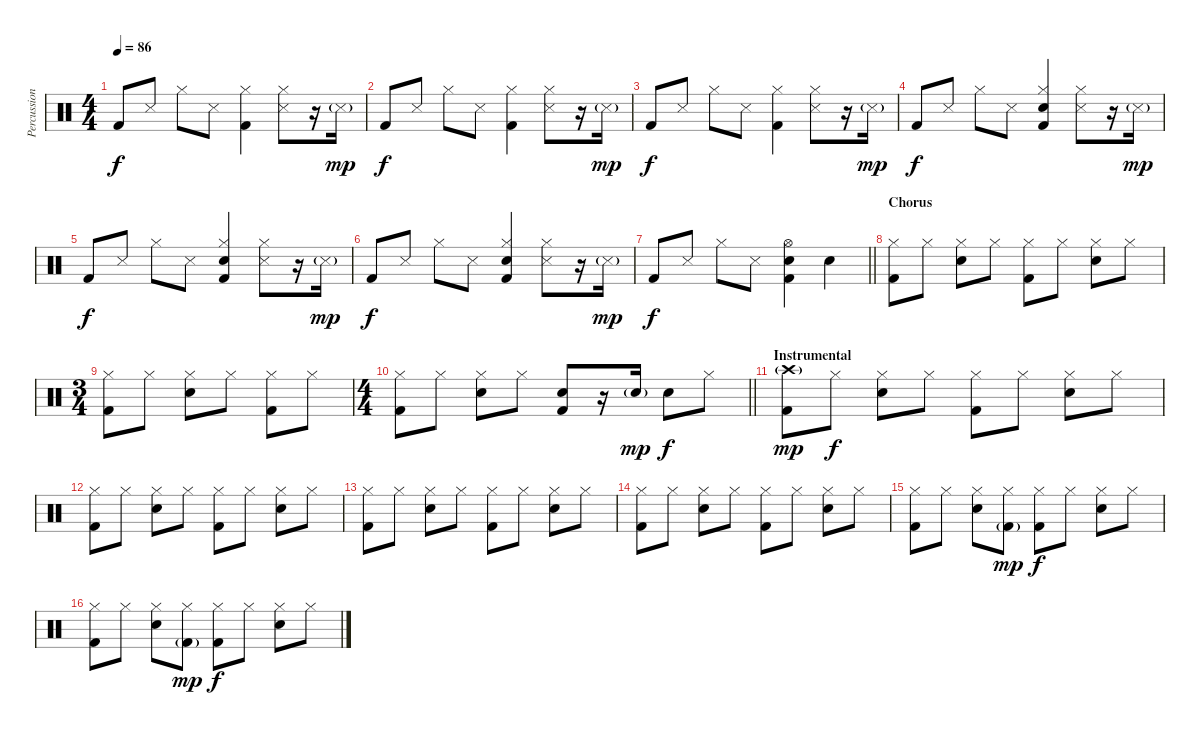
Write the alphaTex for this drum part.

\track ("Percussion" "Percussion") {instrument percussion}
\staff {score}
\articulation defaults
\ts (4 4)
\tempo 86
\clef neutral
\ks c "Kick (hit) 2".8{dy f} "Snare (side stick) 3".8 "Hi-Hat (closed)".8 "Snare (side stick) 3".8
("Hi-Hat (closed)" "Kick (hit) 2").4 ("Hi-Hat (closed)" "Snare (side stick) 3").8 r.16 "Snare (side stick) 3"{g}.16{dy mp} |
"Kick (hit) 2".8{dy f} "Snare (side stick) 3".8 "Hi-Hat (closed)".8 "Snare (side stick) 3".8 ("Hi-Hat (closed)" "Kick (hit) 2").4 ("Hi-Hat (closed)" "Snare (side stick) 3").8 r.16 "Snare (side stick) 3"{g}.16{dy mp} |
"Kick (hit) 2".8{dy f} "Snare (side stick) 3".8 "Hi-Hat (closed)".8 "Snare (side stick) 3".8 ("Hi-Hat (closed)" "Kick (hit) 2").4 ("Hi-Hat (closed)" "Snare (side stick) 3").8 r.16 "Snare (side stick) 3"{g}.16{dy mp} |
"Kick (hit) 2".8{dy f} "Snare (side stick) 3".8 "Hi-Hat (closed)".8 "Snare (side stick) 3".8 ("Hi-Hat (closed)" "Snare (hit) 2" "Kick (hit) 2").4 ("Hi-Hat (closed)" "Snare (side stick) 3").8 r.16 "Snare (side stick) 3"{g}.16{dy mp} |
"Kick (hit) 2".8{dy f} "Snare (side stick) 3".8 "Hi-Hat (closed)".8 "Snare (side stick) 3".8 ("Hi-Hat (closed)" "Snare (hit) 2" "Kick (hit) 2").4 ("Hi-Hat (closed)" "Snare (side stick) 3").8 r.16 "Snare (side stick) 3"{g}.16{dy mp} |
"Kick (hit) 2".8{dy f} "Snare (side stick) 3".8 "Hi-Hat (closed)".8 "Snare (side stick) 3".8 ("Hi-Hat (closed)" "Snare (hit) 2" "Kick (hit) 2").4 ("Hi-Hat (closed)" "Snare (side stick) 3").8 r.16 "Snare (side stick) 3"{g}.16{dy mp} |
\barLineRight lightlight "Kick (hit) 2".8{dy f} "Snare (side stick) 3".8 "Hi-Hat (closed)".8 "Snare (side stick) 3".8
("Hi-Hat (open)" "Snare (hit) 2" "Kick (hit) 2").4 "Snare (hit) 2".4 |
\section ("" "Chorus")
("Hi-Hat (closed)" "Kick (hit) 2").8 "Hi-Hat (closed)".8 ("Hi-Hat (closed)" "Snare (hit) 2").8 "Hi-Hat (closed)".8 ("Hi-Hat (closed)" "Kick (hit) 2").8 "Hi-Hat (closed)".8 ("Hi-Hat (closed)" "Snare (hit) 2").8 "Hi-Hat (closed)".8 |
\ts (3 4)
("Hi-Hat (closed)" "Kick (hit) 2").8 "Hi-Hat (closed)".8 ("Hi-Hat (closed)" "Snare (hit) 2").8 "Hi-Hat (closed)".8 ("Hi-Hat (closed)" "Kick (hit) 2").8 "Hi-Hat (closed)".8 |
\ts (4 4)
\barLineRight lightlight
("Hi-Hat (closed)" "Kick (hit) 2").8 "Hi-Hat (closed)".8 ("Hi-Hat (closed)" "Snare (hit) 2").8 "Hi-Hat (closed)".8 ("Snare (hit) 2" "Kick (hit) 2").8 r.16 "Snare (hit) 2"{g}.16{dy mp} "Snare (hit) 2".8{dy f} "Hi-Hat (closed)".8 |
\section ("" "Instrumental")
("Crash high (hit)"{g} "Kick (hit) 2").8{dy mp} "Hi-Hat (closed)".8{dy f} ("Hi-Hat (closed)" "Snare (hit) 2").8 "Hi-Hat (closed)".8 ("Hi-Hat (closed)" "Kick (hit) 2").8 "Hi-Hat (closed)".8 ("Hi-Hat (closed)" "Snare (hit) 2").8 "Hi-Hat (closed)".8 |
("Hi-Hat (closed)" "Kick (hit) 2").8 "Hi-Hat (closed)".8 ("Hi-Hat (closed)" "Snare (hit) 2").8 "Hi-Hat (closed)".8 ("Hi-Hat (closed)" "Kick (hit) 2").8 "Hi-Hat (closed)".8 ("Hi-Hat (closed)" "Snare (hit) 2").8 "Hi-Hat (closed)".8 |
("Hi-Hat (closed)" "Kick (hit) 2").8 "Hi-Hat (closed)".8 ("Hi-Hat (closed)" "Snare (hit) 2").8 "Hi-Hat (closed)".8 ("Hi-Hat (closed)" "Kick (hit) 2").8 "Hi-Hat (closed)".8 ("Hi-Hat (closed)" "Snare (hit) 2").8 "Hi-Hat (closed)".8 |
("Hi-Hat (closed)" "Kick (hit) 2").8 "Hi-Hat (closed)".8 ("Hi-Hat (closed)" "Snare (hit) 2").8 "Hi-Hat (closed)".8 ("Hi-Hat (closed)" "Kick (hit) 2").8 "Hi-Hat (closed)".8 ("Hi-Hat (closed)" "Snare (hit) 2").8 "Hi-Hat (closed)".8 |
("Hi-Hat (closed)" "Kick (hit) 2").8 "Hi-Hat (closed)".8 ("Hi-Hat (closed)" "Snare (hit) 2").8 ("Hi-Hat (closed)" "Kick (hit) 2"{g}).8{dy mp} ("Hi-Hat (closed)" "Kick (hit) 2").8{dy f} "Hi-Hat (closed)".8 ("Hi-Hat (closed)" "Snare (hit) 2").8 "Hi-Hat (closed)".8 |
("Hi-Hat (closed)" "Kick (hit) 2").8 "Hi-Hat (closed)".8 ("Hi-Hat (closed)" "Snare (hit) 2").8 ("Hi-Hat (closed)" "Kick (hit) 2"{g}).8{dy mp} ("Hi-Hat (closed)" "Kick (hit) 2").8{dy f} "Hi-Hat (closed)".8 ("Hi-Hat (closed)" "Snare (hit) 2").8 "Hi-Hat (closed)".8
